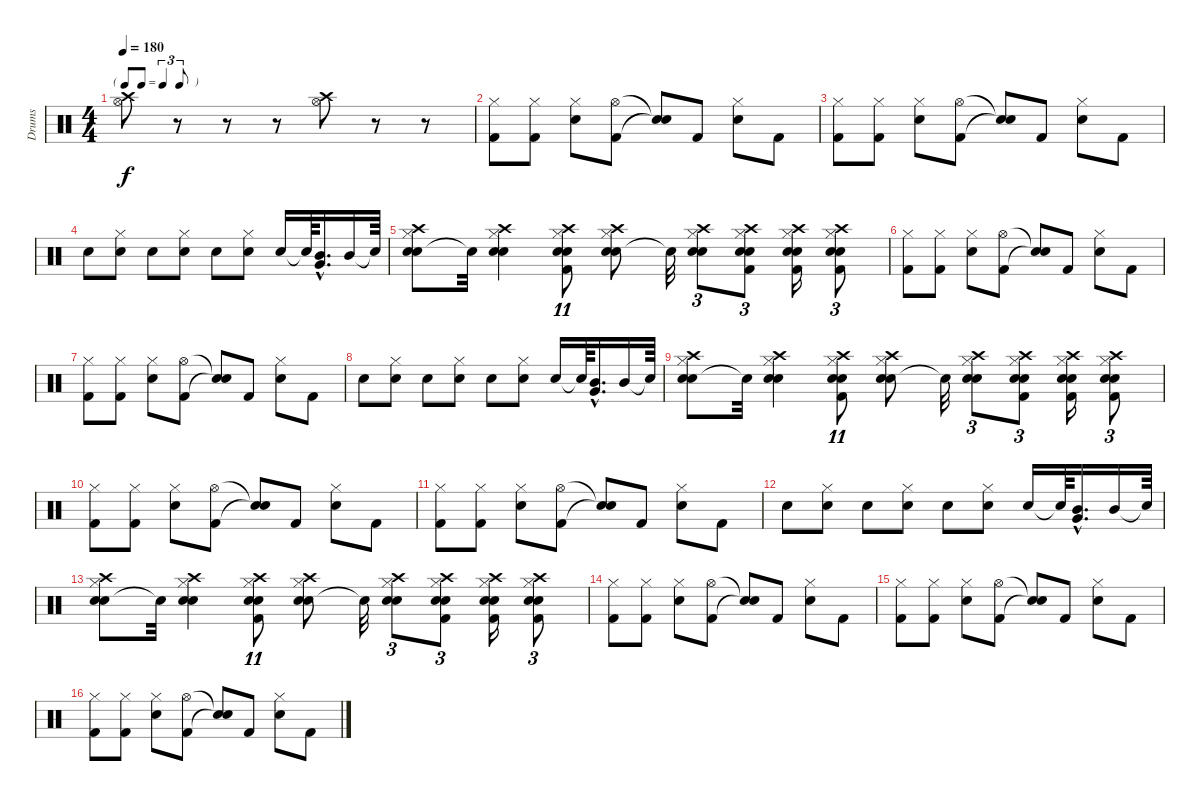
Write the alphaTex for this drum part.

\track ("Drums" "Drums") {instrument percussion}
\staff {score}
\articulation defaults
\ts (4 4)
\tf triplet8th
\tempo 180
\clef neutral
\ks c
("Hi-Hat (open)" "Crash high (hit)").8{dy f} r.8 r.8 r.8 ("Hi-Hat (open)" "Crash high (hit)").8 r.8 r.8 |
("Hi-Hat (closed)" "Kick (hit) 2").8 ("Hi-Hat (closed)" "Kick (hit) 2").8 ("Hi-Hat (closed)" "Electric Snare (hit)").8 ("Hi-Hat (open)" "Kick (hit) 2").8 ("Snare (hit)"{t} "Snare (hit)"{t}).8 "Kick (hit) 2".8 ("Hi-Hat (closed)" "Electric Snare (hit)").8 "Kick (hit) 2".8 |
("Hi-Hat (closed)" "Kick (hit) 2").8 ("Hi-Hat (closed)" "Kick (hit) 2").8 ("Hi-Hat (closed)" "Electric Snare (hit)").8 ("Hi-Hat (open)" "Kick (hit) 2").8 ("Snare (hit)"{t} "Snare (hit)"{t}).8 "Kick (hit) 2".8 ("Hi-Hat (closed)" "Electric Snare (hit)").8 "Kick (hit) 2".8 |
"Snare (hit) 2".8 ("Hi-Hat (closed)" "Snare (hit) 2").8 "Snare (hit) 2".8 ("Hi-Hat (closed)" "Snare (hit) 2").8 "Snare (hit) 2".8 ("Hi-Hat (closed)" "Snare (hit) 2").8 "Snare (hit) 2".16 "Snare (hit)"{t}.64 ("Mid Tom (hit)"{hac} "Very Low Tom (hit)"{hac}).16{d} "Mid Tom (hit)".16 "Snare (hit)"{t}.64 |
("Snare (hit) 2" "Hi-Hat (closed)" "Crash high (hit)" "Electric Snare (hit)").8 "Snare (hit)"{t}.32 ("Snare (hit) 2" "Hi-Hat (closed)" "Crash high (hit)" "Electric Snare (hit)").4 ("Snare (hit) 2" "Kick (hit) 2" "Hi-Hat (closed)" "Crash high (hit)" "Electric Snare (hit)").8{tu (11 8)} ("Snare (hit) 2" "Hi-Hat (closed)" "Crash high (hit)" "Electric Snare (hit)").8 "Snare (hit)"{t}.32 ("Snare (hit) 2" "Hi-Hat (closed)" "Crash high (hit)" "Electric Snare (hit)").8{tu (3 2)} ("Snare (hit) 2" "Hi-Hat (closed)" "Crash high (hit)" "Kick (hit) 2" "Electric Snare (hit)").8{tu (3 2)} ("Snare (hit) 2" "Hi-Hat (closed)" "Crash high (hit)" "Kick (hit) 2" "Electric Snare (hit)").16 ("Snare (hit) 2" "Hi-Hat (closed)" "Crash high (hit)" "Kick (hit) 2" "Electric Snare (hit)").8{tu (3 2)} |
("Hi-Hat (closed)" "Kick (hit) 2").8 ("Hi-Hat (closed)" "Kick (hit) 2").8 ("Hi-Hat (closed)" "Electric Snare (hit)").8 ("Hi-Hat (open)" "Kick (hit) 2").8 ("Snare (hit)"{t} "Snare (hit)"{t}).8 "Kick (hit) 2".8 ("Hi-Hat (closed)" "Electric Snare (hit)").8 "Kick (hit) 2".8 |
("Hi-Hat (closed)" "Kick (hit) 2").8 ("Hi-Hat (closed)" "Kick (hit) 2").8 ("Hi-Hat (closed)" "Electric Snare (hit)").8 ("Hi-Hat (open)" "Kick (hit) 2").8 ("Snare (hit)"{t} "Snare (hit)"{t}).8 "Kick (hit) 2".8 ("Hi-Hat (closed)" "Electric Snare (hit)").8 "Kick (hit) 2".8 |
"Snare (hit) 2".8 ("Hi-Hat (closed)" "Snare (hit) 2").8 "Snare (hit) 2".8 ("Hi-Hat (closed)" "Snare (hit) 2").8 "Snare (hit) 2".8 ("Hi-Hat (closed)" "Snare (hit) 2").8 "Snare (hit) 2".16 "Snare (hit)"{t}.64 ("Mid Tom (hit)"{hac} "Very Low Tom (hit)"{hac}).16{d} "Mid Tom (hit)".16 "Snare (hit)"{t}.64 |
("Snare (hit) 2" "Hi-Hat (closed)" "Crash high (hit)" "Electric Snare (hit)").8 "Snare (hit)"{t}.32 ("Snare (hit) 2" "Hi-Hat (closed)" "Crash high (hit)" "Electric Snare (hit)").4 ("Snare (hit) 2" "Kick (hit) 2" "Hi-Hat (closed)" "Crash high (hit)" "Electric Snare (hit)").8{tu (11 8)} ("Snare (hit) 2" "Hi-Hat (closed)" "Crash high (hit)" "Electric Snare (hit)").8 "Snare (hit)"{t}.32 ("Snare (hit) 2" "Hi-Hat (closed)" "Crash high (hit)" "Electric Snare (hit)").8{tu (3 2)} ("Snare (hit) 2" "Hi-Hat (closed)" "Crash high (hit)" "Kick (hit) 2" "Electric Snare (hit)").8{tu (3 2)} ("Snare (hit) 2" "Hi-Hat (closed)" "Crash high (hit)" "Kick (hit) 2" "Electric Snare (hit)").16 ("Snare (hit) 2" "Hi-Hat (closed)" "Crash high (hit)" "Kick (hit) 2" "Electric Snare (hit)").8{tu (3 2)} |
("Hi-Hat (closed)" "Kick (hit) 2").8 ("Hi-Hat (closed)" "Kick (hit) 2").8 ("Hi-Hat (closed)" "Electric Snare (hit)").8 ("Hi-Hat (open)" "Kick (hit) 2").8 ("Snare (hit)"{t} "Snare (hit)"{t}).8 "Kick (hit) 2".8 ("Hi-Hat (closed)" "Electric Snare (hit)").8 "Kick (hit) 2".8 |
("Hi-Hat (closed)" "Kick (hit) 2").8 ("Hi-Hat (closed)" "Kick (hit) 2").8 ("Hi-Hat (closed)" "Electric Snare (hit)").8 ("Hi-Hat (open)" "Kick (hit) 2").8 ("Snare (hit)"{t} "Snare (hit)"{t}).8 "Kick (hit) 2".8 ("Hi-Hat (closed)" "Electric Snare (hit)").8 "Kick (hit) 2".8 |
"Snare (hit) 2".8 ("Hi-Hat (closed)" "Snare (hit) 2").8 "Snare (hit) 2".8 ("Hi-Hat (closed)" "Snare (hit) 2").8 "Snare (hit) 2".8 ("Hi-Hat (closed)" "Snare (hit) 2").8 "Snare (hit) 2".16 "Snare (hit)"{t}.64 ("Mid Tom (hit)"{hac} "Very Low Tom (hit)"{hac}).16{d} "Mid Tom (hit)".16 "Snare (hit)"{t}.64 |
("Snare (hit) 2" "Hi-Hat (closed)" "Crash high (hit)" "Electric Snare (hit)").8 "Snare (hit)"{t}.32 ("Snare (hit) 2" "Hi-Hat (closed)" "Crash high (hit)" "Electric Snare (hit)").4 ("Snare (hit) 2" "Kick (hit) 2" "Hi-Hat (closed)" "Crash high (hit)" "Electric Snare (hit)").8{tu (11 8)} ("Snare (hit) 2" "Hi-Hat (closed)" "Crash high (hit)" "Electric Snare (hit)").8 "Snare (hit)"{t}.32 ("Snare (hit) 2" "Hi-Hat (closed)" "Crash high (hit)" "Electric Snare (hit)").8{tu (3 2)} ("Snare (hit) 2" "Hi-Hat (closed)" "Crash high (hit)" "Kick (hit) 2" "Electric Snare (hit)").8{tu (3 2)} ("Snare (hit) 2" "Hi-Hat (closed)" "Crash high (hit)" "Kick (hit) 2" "Electric Snare (hit)").16 ("Snare (hit) 2" "Hi-Hat (closed)" "Crash high (hit)" "Kick (hit) 2" "Electric Snare (hit)").8{tu (3 2)} |
("Hi-Hat (closed)" "Kick (hit) 2").8 ("Hi-Hat (closed)" "Kick (hit) 2").8 ("Hi-Hat (closed)" "Electric Snare (hit)").8 ("Hi-Hat (open)" "Kick (hit) 2").8 ("Snare (hit)"{t} "Snare (hit)"{t}).8 "Kick (hit) 2".8 ("Hi-Hat (closed)" "Electric Snare (hit)").8 "Kick (hit) 2".8 |
("Hi-Hat (closed)" "Kick (hit) 2").8 ("Hi-Hat (closed)" "Kick (hit) 2").8 ("Hi-Hat (closed)" "Electric Snare (hit)").8 ("Hi-Hat (open)" "Kick (hit) 2").8 ("Snare (hit)"{t} "Snare (hit)"{t}).8 "Kick (hit) 2".8 ("Hi-Hat (closed)" "Electric Snare (hit)").8 "Kick (hit) 2".8 |
("Hi-Hat (closed)" "Kick (hit) 2").8 ("Hi-Hat (closed)" "Kick (hit) 2").8 ("Hi-Hat (closed)" "Electric Snare (hit)").8 ("Hi-Hat (open)" "Kick (hit) 2").8 ("Snare (hit)"{t} "Snare (hit)"{t}).8 "Kick (hit) 2".8 ("Hi-Hat (closed)" "Electric Snare (hit)").8 "Kick (hit) 2".8
